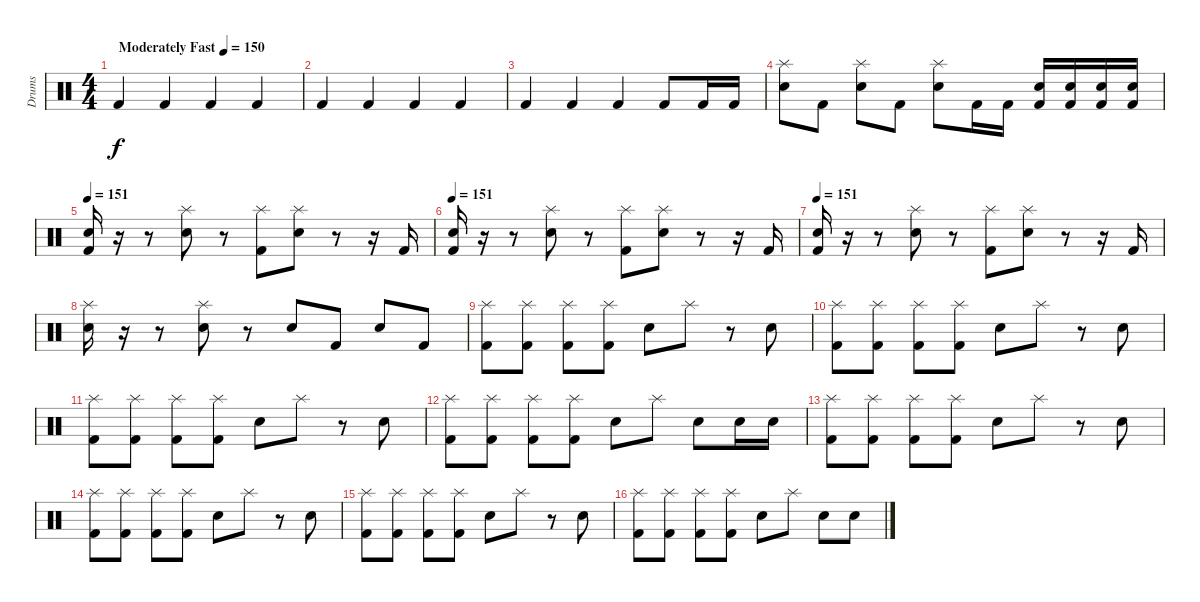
\track ("Drums" "Drums") {instrument percussion}
\staff {score}
\articulation defaults
\ts (4 4)
\tempo (150 "Moderately Fast")
\clef neutral
\ks c "Kick (hit) 2".4{dy f} "Kick (hit) 2".4 "Kick (hit) 2".4 "Kick (hit) 2".4
|
"Kick (hit) 2".4 "Kick (hit) 2".4 "Kick (hit) 2".4 "Kick (hit) 2".4 |
"Kick (hit) 2".4 "Kick (hit) 2".4 "Kick (hit) 2".4 "Kick (hit) 2".8 "Kick (hit) 2".16 "Kick (hit) 2".16 |
("Snare (hit) 2" "Splash (hit)").8 "Kick (hit) 2".8 ("Snare (hit) 2" "Splash (hit)").8 "Kick (hit) 2".8 ("Snare (hit) 2" "Splash (hit)").8 "Kick (hit) 2".16 "Kick (hit) 2".16 ("Snare (hit) 2" "Kick (hit) 2").16 ("Snare (hit) 2" "Kick (hit) 2").16 ("Snare (hit) 2" "Kick (hit) 2").16 ("Snare (hit) 2" "Kick (hit) 2").16 |
\tempo 151
("Snare (hit) 2" "Kick (hit) 2").16 r.16 r.8 ("Snare (hit) 2" "Splash (hit)").8 r.8 ("Kick (hit) 2" "Splash (hit)").8 ("Snare (hit) 2" "Splash (hit)").8 r.8 r.16 "Kick (hit) 2".16 |
\tempo 151
("Snare (hit) 2" "Kick (hit) 2").16 r.16 r.8 ("Snare (hit) 2" "Splash (hit)").8 r.8 ("Kick (hit) 2" "Splash (hit)").8 ("Snare (hit) 2" "Splash (hit)").8 r.8 r.16 "Kick (hit) 2".16 |
\tempo 151
("Snare (hit) 2" "Kick (hit) 2").16 r.16 r.8 ("Snare (hit) 2" "Splash (hit)").8 r.8 ("Kick (hit) 2" "Splash (hit)").8 ("Snare (hit) 2" "Splash (hit)").8 r.8 r.16 "Kick (hit) 2".16 |
("Snare (hit) 2" "Splash (hit)").16 r.16 r.8 ("Snare (hit) 2" "Splash (hit)").8 r.8 "Snare (hit) 2".8 "Kick (hit) 2".8 "Snare (hit) 2".8 "Kick (hit) 2".8 |
("Kick (hit) 2" "Splash (hit)").8 ("Kick (hit) 2" "Splash (hit)").8 ("Kick (hit) 2" "Splash (hit)").8 ("Kick (hit) 2" "Splash (hit)").8 "Snare (hit) 2".8 "Splash (hit)".8 r.8 "Snare (hit) 2".8 |
("Kick (hit) 2" "Splash (hit)").8 ("Kick (hit) 2" "Splash (hit)").8 ("Kick (hit) 2" "Splash (hit)").8 ("Kick (hit) 2" "Splash (hit)").8 "Snare (hit) 2".8 "Splash (hit)".8 r.8 "Snare (hit) 2".8 |
("Kick (hit) 2" "Splash (hit)").8 ("Kick (hit) 2" "Splash (hit)").8 ("Kick (hit) 2" "Splash (hit)").8 ("Kick (hit) 2" "Splash (hit)").8 "Snare (hit) 2".8 "Splash (hit)".8 r.8 "Snare (hit) 2".8 |
("Kick (hit) 2" "Splash (hit)").8 ("Kick (hit) 2" "Splash (hit)").8 ("Kick (hit) 2" "Splash (hit)").8 ("Kick (hit) 2" "Splash (hit)").8 "Snare (hit) 2".8 "Splash (hit)".8 "Snare (hit) 2".8 "Snare (hit) 2".16 "Snare (hit) 2".16 |
("Kick (hit) 2" "Splash (hit)").8 ("Kick (hit) 2" "Splash (hit)").8 ("Kick (hit) 2" "Splash (hit)").8 ("Kick (hit) 2" "Splash (hit)").8 "Snare (hit) 2".8 "Splash (hit)".8 r.8 "Snare (hit) 2".8 |
("Kick (hit) 2" "Splash (hit)").8 ("Kick (hit) 2" "Splash (hit)").8 ("Kick (hit) 2" "Splash (hit)").8 ("Kick (hit) 2" "Splash (hit)").8 "Snare (hit) 2".8 "Splash (hit)".8 r.8 "Snare (hit) 2".8 |
("Kick (hit) 2" "Splash (hit)").8 ("Kick (hit) 2" "Splash (hit)").8 ("Kick (hit) 2" "Splash (hit)").8 ("Kick (hit) 2" "Splash (hit)").8 "Snare (hit) 2".8 "Splash (hit)".8 r.8 "Snare (hit) 2".8 |
("Kick (hit) 2" "Splash (hit)").8 ("Kick (hit) 2" "Splash (hit)").8 ("Kick (hit) 2" "Splash (hit)").8 ("Kick (hit) 2" "Splash (hit)").8 "Snare (hit) 2".8 "Splash (hit)".8 "Snare (hit) 2".8 "Snare (hit) 2".8
